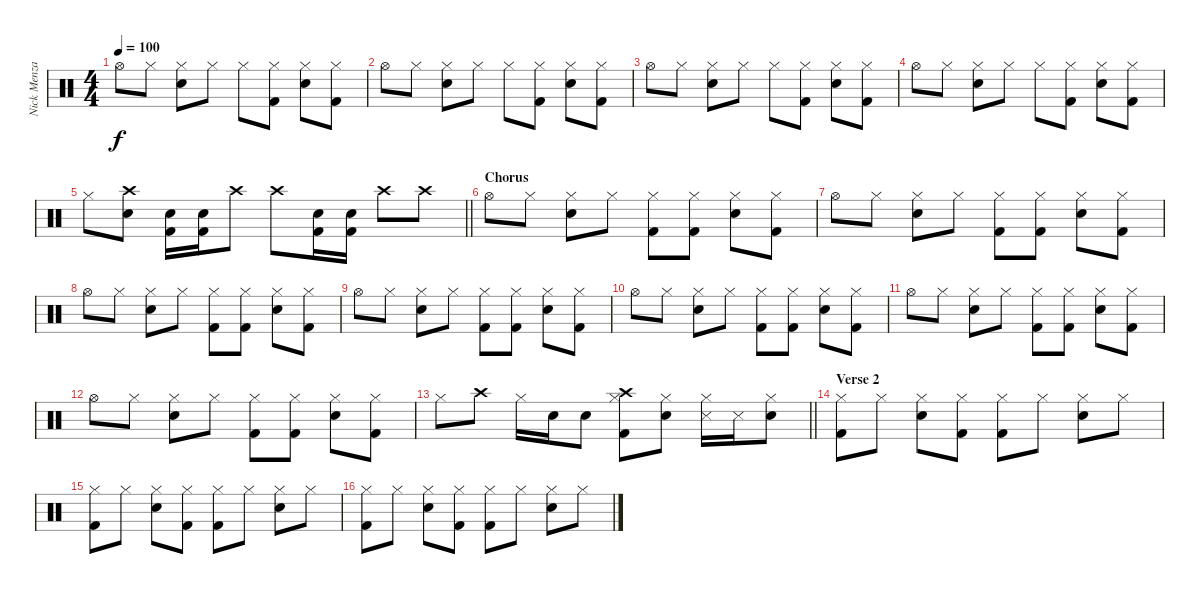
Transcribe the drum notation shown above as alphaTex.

\track ("Nick Menza" "Nick Menza") {instrument percussion}
\staff {score}
\articulation defaults
\ts (4 4)
\tempo 100
\clef neutral
\ks c "Hi-Hat (open)".8{dy f} "Hi-Hat (closed)".8
("Hi-Hat (closed)" "Snare (hit) 2").8 "Hi-Hat (closed)".8 "Hi-Hat (closed)".8 ("Hi-Hat (closed)" "Kick (hit) 2").8 ("Hi-Hat (closed)" "Snare (hit) 2").8 ("Hi-Hat (closed)" "Kick (hit) 2").8 |
"Hi-Hat (open)".8 "Hi-Hat (closed)".8 ("Hi-Hat (closed)" "Snare (hit) 2").8 "Hi-Hat (closed)".8 "Hi-Hat (closed)".8 ("Hi-Hat (closed)" "Kick (hit) 2").8 ("Hi-Hat (closed)" "Snare (hit) 2").8 ("Hi-Hat (closed)" "Kick (hit) 2").8 |
"Hi-Hat (open)".8 "Hi-Hat (closed)".8 ("Hi-Hat (closed)" "Snare (hit) 2").8 "Hi-Hat (closed)".8 "Hi-Hat (closed)".8 ("Hi-Hat (closed)" "Kick (hit) 2").8 ("Hi-Hat (closed)" "Snare (hit) 2").8 ("Hi-Hat (closed)" "Kick (hit) 2").8 |
"Hi-Hat (open)".8 "Hi-Hat (closed)".8 ("Hi-Hat (closed)" "Snare (hit) 2").8 "Hi-Hat (closed)".8 "Hi-Hat (closed)".8 ("Hi-Hat (closed)" "Kick (hit) 2").8 ("Hi-Hat (closed)" "Snare (hit) 2").8 ("Hi-Hat (closed)" "Kick (hit) 2").8 |
\barLineRight lightlight "Hi-Hat (closed)".8
("Crash high (hit)" "Snare (hit) 2").8 ("Electric Snare (hit)" "Kick (hit) 2").16 ("Electric Snare (hit)" "Kick (hit) 2").16 "Crash high (hit)".8 "Crash high (hit)".8 ("Snare (hit) 2" "Kick (hit) 2").16 ("Snare (hit) 2" "Kick (hit) 2").16 "Crash high (hit)".8 "Crash high (hit)".8 |
\section ("" "Chorus")
"Hi-Hat (open)".8 "Hi-Hat (closed)".8 ("Hi-Hat (closed)" "Snare (hit) 2").8 "Hi-Hat (closed)".8 ("Hi-Hat (closed)" "Kick (hit) 2").8 ("Hi-Hat (closed)" "Kick (hit) 2").8 ("Hi-Hat (closed)" "Snare (hit) 2").8 ("Hi-Hat (closed)" "Kick (hit) 2").8 |
"Hi-Hat (open)".8 "Hi-Hat (closed)".8 ("Hi-Hat (closed)" "Snare (hit) 2").8 "Hi-Hat (closed)".8 ("Hi-Hat (closed)" "Kick (hit) 2").8 ("Hi-Hat (closed)" "Kick (hit) 2").8 ("Hi-Hat (closed)" "Snare (hit) 2").8 ("Hi-Hat (closed)" "Kick (hit) 2").8 |
"Hi-Hat (open)".8 "Hi-Hat (closed)".8 ("Hi-Hat (closed)" "Snare (hit) 2").8 "Hi-Hat (closed)".8 ("Hi-Hat (closed)" "Kick (hit) 2").8 ("Hi-Hat (closed)" "Kick (hit) 2").8 ("Hi-Hat (closed)" "Snare (hit) 2").8 ("Hi-Hat (closed)" "Kick (hit) 2").8 |
"Hi-Hat (open)".8 "Hi-Hat (closed)".8 ("Hi-Hat (closed)" "Snare (hit) 2").8 "Hi-Hat (closed)".8 ("Hi-Hat (closed)" "Kick (hit) 2").8 ("Hi-Hat (closed)" "Kick (hit) 2").8 ("Hi-Hat (closed)" "Snare (hit) 2").8 ("Hi-Hat (closed)" "Kick (hit) 2").8 |
"Hi-Hat (open)".8 "Hi-Hat (closed)".8 ("Hi-Hat (closed)" "Snare (hit) 2").8 "Hi-Hat (closed)".8 ("Hi-Hat (closed)" "Kick (hit) 2").8 ("Hi-Hat (closed)" "Kick (hit) 2").8 ("Hi-Hat (closed)" "Snare (hit) 2").8 ("Hi-Hat (closed)" "Kick (hit) 2").8 |
"Hi-Hat (open)".8 "Hi-Hat (closed)".8 ("Hi-Hat (closed)" "Snare (hit) 2").8 "Hi-Hat (closed)".8 ("Hi-Hat (closed)" "Kick (hit) 2").8 ("Hi-Hat (closed)" "Kick (hit) 2").8 ("Hi-Hat (closed)" "Snare (hit) 2").8 ("Hi-Hat (closed)" "Kick (hit) 2").8 |
"Hi-Hat (open)".8 "Hi-Hat (closed)".8 ("Hi-Hat (closed)" "Snare (hit) 2").8 "Hi-Hat (closed)".8 ("Hi-Hat (closed)" "Kick (hit) 2").8 ("Hi-Hat (closed)" "Kick (hit) 2").8 ("Hi-Hat (closed)" "Snare (hit) 2").8 ("Hi-Hat (closed)" "Kick (hit) 2").8 |
\barLineRight lightlight "Hi-Hat (closed)".8 "Crash high (hit)".8 "Hi-Hat (closed)".16 "Snare (hit) 2".16 "Snare (hit) 2".8
("Crash high (hit)" "Hi-Hat (closed)" "Kick (hit) 2").8 ("Hi-Hat (closed)" "Electric Snare (hit)").8 ("Hi-Hat (closed)" "Snare (side stick) 3").16 "Snare (side stick) 3".16 ("Hi-Hat (closed)" "Snare (hit) 2").8 |
\section ("" "Verse 2")
("Hi-Hat (closed)" "Kick (hit) 2").8 "Hi-Hat (closed)".8 ("Hi-Hat (closed)" "Snare (hit) 2").8 ("Hi-Hat (closed)" "Kick (hit) 2").8 ("Hi-Hat (closed)" "Kick (hit) 2").8 "Hi-Hat (closed)".8 ("Hi-Hat (closed)" "Snare (hit) 2").8 "Hi-Hat (closed)".8 |
("Hi-Hat (closed)" "Kick (hit) 2").8 "Hi-Hat (closed)".8 ("Hi-Hat (closed)" "Snare (hit) 2").8 ("Hi-Hat (closed)" "Kick (hit) 2").8 ("Hi-Hat (closed)" "Kick (hit) 2").8 "Hi-Hat (closed)".8 ("Hi-Hat (closed)" "Snare (hit) 2").8 "Hi-Hat (closed)".8 |
("Hi-Hat (closed)" "Kick (hit) 2").8 "Hi-Hat (closed)".8 ("Hi-Hat (closed)" "Snare (hit) 2").8 ("Hi-Hat (closed)" "Kick (hit) 2").8 ("Hi-Hat (closed)" "Kick (hit) 2").8 "Hi-Hat (closed)".8 ("Hi-Hat (closed)" "Snare (hit) 2").8 "Hi-Hat (closed)".8
